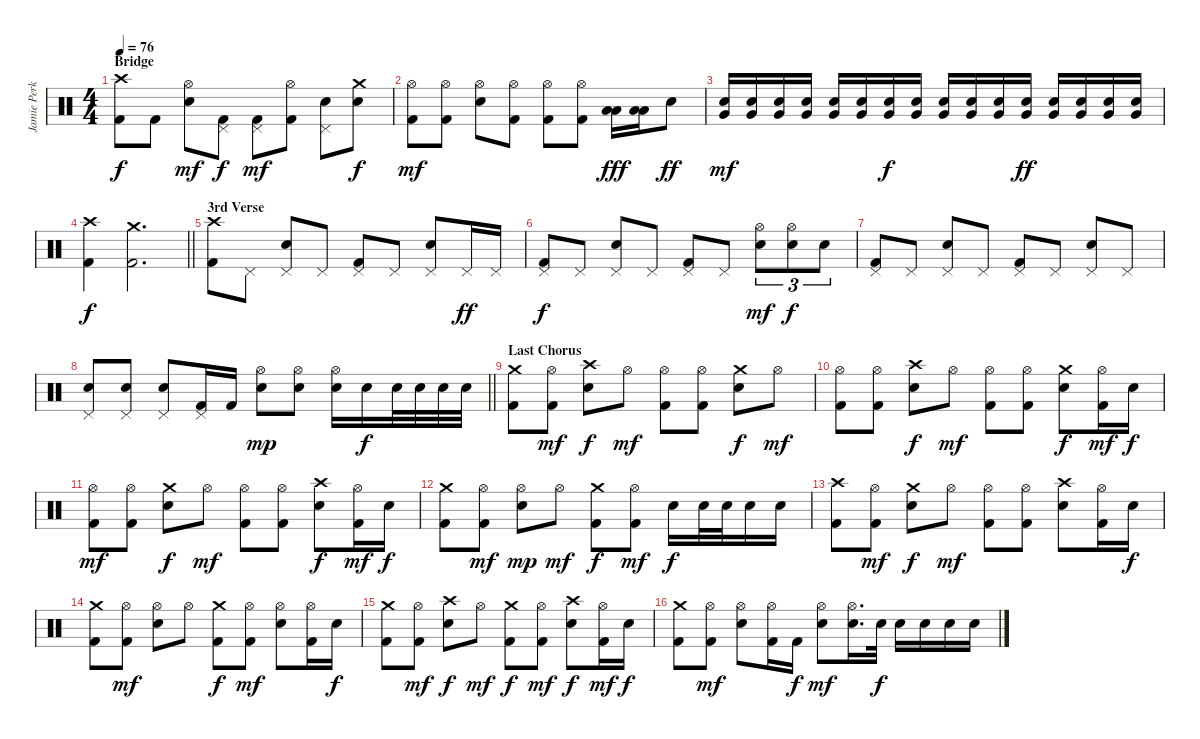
\track ("Jamie Perkins" "Jamie Perk") {instrument percussion}
\staff {score}
\articulation defaults
\ts (4 4)
\section ("" "Bridge")
\tempo 76
\clef neutral
\ks c
("Crash high (hit)" "Kick (hit) 2").8{dy f} "Kick (hit) 2".8 ("Hi-Hat (open)" "Snare (hit) 2").8{dy mf} ("Pedal Hi-Hat (hit)" "Kick (hit) 2").8{dy f} ("Pedal Hi-Hat (hit)" "Kick (hit) 2").8{dy mf} ("Hi-Hat (open)" "Kick (hit) 2").8 ("Pedal Hi-Hat (hit)" "Snare (hit) 2").8 ("Crash medium (hit)" "Snare (hit) 2").8{dy f} |
("Hi-Hat (open)" "Kick (hit) 2").8{dy mf} ("Hi-Hat (open)" "Kick (hit) 2").8 ("Hi-Hat (open)" "Snare (hit) 2").8 ("Hi-Hat (open)" "Kick (hit) 2").8 ("Hi-Hat (open)" "Kick (hit) 2").8 ("Hi-Hat (open)" "Kick (hit) 2").8 ("Low Tom (hit)" "Low Floor Tom (hit)").16{dy fff} ("Low Tom (hit)" "Low Floor Tom (hit)").16 "Snare (hit) 2".8{dy ff} |
("Snare (hit) 2" "Very Low Tom (hit)").16{dy mf} ("Snare (hit) 2" "Very Low Tom (hit)").16 ("Snare (hit) 2" "Very Low Tom (hit)").16 ("Snare (hit) 2" "Very Low Tom (hit)").16 ("Snare (hit) 2" "Very Low Tom (hit)").16 ("Snare (hit) 2" "Very Low Tom (hit)").16 ("Snare (hit) 2" "Very Low Tom (hit)").16{dy f} ("Snare (hit) 2" "Very Low Tom (hit)").16 ("Snare (hit) 2" "Very Low Tom (hit)").16 ("Snare (hit) 2" "Very Low Tom (hit)").16 ("Snare (hit) 2" "Very Low Tom (hit)").16 ("Snare (hit) 2" "Very Low Tom (hit)").16{dy ff} ("Snare (hit) 2" "Very Low Tom (hit)").16 ("Snare (hit) 2" "Very Low Tom (hit)").16 ("Snare (hit) 2" "Very Low Tom (hit)").16 ("Snare (hit) 2" "Very Low Tom (hit)").16 |
\barLineRight lightlight
("Crash high (hit)" "Kick (hit) 2").4{dy f} ("Crash medium (hit)" "Kick (hit) 2").2{d} |
\section ("" "3rd Verse")
("Crash high (hit)" "Kick (hit) 2").8 "Pedal Hi-Hat (hit)".8 ("Pedal Hi-Hat (hit)" "Snare (hit) 2").8 "Pedal Hi-Hat (hit)".8 ("Pedal Hi-Hat (hit)" "Kick (hit) 2").8 "Pedal Hi-Hat (hit)".8 ("Pedal Hi-Hat (hit)" "Snare (hit) 2").8 "Pedal Hi-Hat (hit)".16{dy ff} "Pedal Hi-Hat (hit)".16 |
("Pedal Hi-Hat (hit)" "Kick (hit) 2").8{dy f} "Pedal Hi-Hat (hit)".8 ("Pedal Hi-Hat (hit)" "Snare (hit) 2").8 "Pedal Hi-Hat (hit)".8 ("Pedal Hi-Hat (hit)" "Kick (hit) 2").8 "Pedal Hi-Hat (hit)".8 ("Hi-Hat (open)" "Snare (hit) 2").8{tu (3 2) dy mf} ("Hi-Hat (open)" "Snare (hit) 2").8{tu (3 2) dy f} "Snare (hit) 2".8{tu (3 2)} |
("Pedal Hi-Hat (hit)" "Kick (hit) 2").8 "Pedal Hi-Hat (hit)".8 ("Pedal Hi-Hat (hit)" "Snare (hit) 2").8 "Pedal Hi-Hat (hit)".8 ("Pedal Hi-Hat (hit)" "Kick (hit) 2").8 "Pedal Hi-Hat (hit)".8 ("Pedal Hi-Hat (hit)" "Snare (hit) 2").8 "Pedal Hi-Hat (hit)".8 |
\barLineRight lightlight
("Pedal Hi-Hat (hit)" "Snare (hit) 2").8 ("Pedal Hi-Hat (hit)" "Snare (hit) 2").8 ("Pedal Hi-Hat (hit)" "Snare (hit) 2").8 ("Pedal Hi-Hat (hit)" "Kick (hit) 2").16 "Kick (hit) 2".16 ("Hi-Hat (open)" "Snare (hit) 2").8{dy mp} ("Hi-Hat (open)" "Snare (hit) 2").8 ("Hi-Hat (open)" "Snare (hit) 2").16 "Snare (hit) 2".16{dy f} "Snare (hit) 2".32 "Snare (hit) 2".32 "Snare (hit) 2".32 "Snare (hit) 2".32 |
\section ("" "Last Chorus")
("Crash medium (hit)" "Kick (hit) 2").8 ("Hi-Hat (open)" "Kick (hit) 2").8{dy mf} ("Crash high (hit)" "Snare (hit) 2").8{dy f} "Hi-Hat (open)".8{dy mf} ("Hi-Hat (open)" "Kick (hit) 2").8 ("Hi-Hat (open)" "Kick (hit) 2").8 ("Crash medium (hit)" "Snare (hit) 2").8{dy f} "Hi-Hat (open)".8{dy mf} |
("Hi-Hat (open)" "Kick (hit) 2").8 ("Hi-Hat (open)" "Kick (hit) 2").8 ("Crash high (hit)" "Snare (hit) 2").8{dy f} "Hi-Hat (open)".8{dy mf} ("Hi-Hat (open)" "Kick (hit) 2").8 ("Hi-Hat (open)" "Kick (hit) 2").8 ("Crash medium (hit)" "Snare (hit) 2").8{dy f} ("Hi-Hat (open)" "Kick (hit) 2").16{dy mf} "Snare (hit) 2".16{dy f} |
("Hi-Hat (open)" "Kick (hit) 2").8{dy mf} ("Hi-Hat (open)" "Kick (hit) 2").8 ("Crash medium (hit)" "Snare (hit) 2").8{dy f} "Hi-Hat (open)".8{dy mf} ("Hi-Hat (open)" "Kick (hit) 2").8 ("Hi-Hat (open)" "Kick (hit) 2").8 ("Crash high (hit)" "Snare (hit) 2").8{dy f} ("Hi-Hat (open)" "Kick (hit) 2").16{dy mf} "Snare (hit) 2".16{dy f} |
("Crash medium (hit)" "Kick (hit) 2").8 ("Hi-Hat (open)" "Kick (hit) 2").8{dy mf} ("Hi-Hat (open)" "Snare (hit) 2").8{dy mp} "Hi-Hat (open)".8{dy mf} ("Crash medium (hit)" "Kick (hit) 2").8{dy f} ("Hi-Hat (open)" "Kick (hit) 2").8{dy mf} "Snare (hit) 2".16{dy f} "Snare (hit) 2".32 "Snare (hit) 2".32 "Snare (hit) 2".16 "Snare (hit) 2".16 |
("Crash high (hit)" "Kick (hit) 2").8 ("Hi-Hat (open)" "Kick (hit) 2").8{dy mf} ("Crash medium (hit)" "Snare (hit) 2").8{dy f} "Hi-Hat (open)".8{dy mf} ("Hi-Hat (open)" "Kick (hit) 2").8 ("Hi-Hat (open)" "Kick (hit) 2").8 ("Crash high (hit)" "Snare (hit) 2").8 ("Hi-Hat (open)" "Kick (hit) 2").16 "Snare (hit) 2".16{dy f} |
("Crash medium (hit)" "Kick (hit) 2").8 ("Hi-Hat (open)" "Kick (hit) 2").8{dy mf} ("Hi-Hat (open)" "Snare (hit) 2").8 "Hi-Hat (open)".8 ("Crash medium (hit)" "Kick (hit) 2").8{dy f} ("Hi-Hat (open)" "Kick (hit) 2").8{dy mf} ("Hi-Hat (open)" "Snare (hit) 2").8 ("Hi-Hat (open)" "Kick (hit) 2").16 "Snare (hit) 2".16{dy f} |
("Crash medium (hit)" "Kick (hit) 2").8 ("Hi-Hat (open)" "Kick (hit) 2").8{dy mf} ("Crash high (hit)" "Snare (hit) 2").8{dy f} "Hi-Hat (open)".8{dy mf} ("Crash medium (hit)" "Kick (hit) 2").8{dy f} ("Hi-Hat (open)" "Kick (hit) 2").8{dy mf} ("Crash high (hit)" "Snare (hit) 2").8{dy f} ("Hi-Hat (open)" "Kick (hit) 2").16{dy mf} "Snare (hit) 2".16{dy f} |
("Crash medium (hit)" "Kick (hit) 2").8 ("Hi-Hat (open)" "Kick (hit) 2").8{dy mf} ("Hi-Hat (open)" "Snare (hit) 2").8 ("Hi-Hat (open)" "Kick (hit) 2").16 "Kick (hit) 2".16{dy f} ("Hi-Hat (open)" "Snare (hit) 2").8{dy mf} ("Hi-Hat (open)" "Snare (hit) 2").16{d} "Snare (hit) 2".32{dy f} "Snare (hit) 2".16 "Snare (hit) 2".16 "Snare (hit) 2".16 "Snare (hit) 2".16
